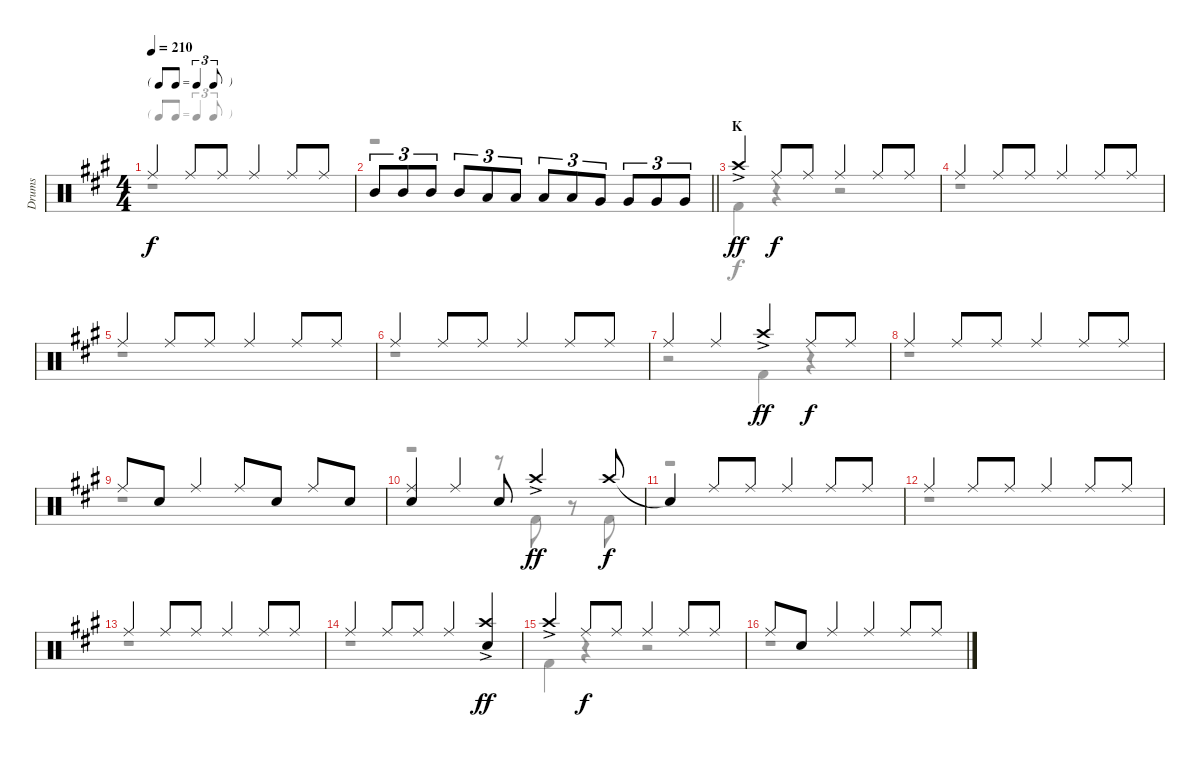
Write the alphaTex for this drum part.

\track ("Drums" "Drums") {instrument percussion}
\staff {score}
\articulation defaults
\voice
\ts (4 4)
\tf triplet8th
\tempo 210
\clef neutral
\ks a "Ride (middle)".4{dy f} "Ride (middle)".8 "Ride (middle)".8 "Ride (middle)".4 "Ride (middle)".8 "Ride (middle)".8
|
\barLineRight lightlight "Mid Tom (hit)".8{tu (3 2)} "Mid Tom (hit)".8{tu (3 2)} "Mid Tom (hit)".8{tu (3 2)} "Mid Tom (hit)".8{tu (3 2)} "Low Tom (hit)".8{tu (3 2)} "Low Tom (hit)".8{tu (3 2)} "Low Tom (hit)".8{tu (3 2)} "Low Tom (hit)".8{tu (3 2)} "Very Low Tom (hit)".8{tu (3 2)} "Very Low Tom (hit)".8{tu (3 2)} "Very Low Tom (hit)".8{tu (3 2)} "Very Low Tom (hit)".8{tu (3 2)}
|
\section ("" "K")
"Crash high (hit)"{ac}.4{dy ff} "Ride (middle)".8{dy f} "Ride (middle)".8 "Ride (middle)".4 "Ride (middle)".8 "Ride (middle)".8 |
"Ride (middle)".4 "Ride (middle)".8 "Ride (middle)".8 "Ride (middle)".4 "Ride (middle)".8 "Ride (middle)".8 |
"Ride (middle)".4 "Ride (middle)".8 "Ride (middle)".8 "Ride (middle)".4 "Ride (middle)".8 "Ride (middle)".8 |
"Ride (middle)".4 "Ride (middle)".8 "Ride (middle)".8 "Ride (middle)".4 "Ride (middle)".8 "Ride (middle)".8 |
"Ride (middle)".4 "Ride (middle)".4 "Crash high (hit)"{ac}.4{dy ff} "Ride (middle)".8{dy f} "Ride (middle)".8 |
"Ride (middle)".4 "Ride (middle)".8 "Ride (middle)".8 "Ride (middle)".4 "Ride (middle)".8 "Ride (middle)".8 |
"Ride (middle)".8 "Snare (hit) 2".8 "Ride (middle)".4 "Ride (middle)".8 "Snare (hit) 2".8 "Ride (middle)".8 "Snare (hit) 2".8 |
("Ride (middle)" "Snare (hit) 2").4 "Ride (middle)".4 "Snare (hit) 2".8 "Crash high (hit)"{ac}.4{dy ff} "Crash high (hit)".8{dy f} |
"Snare (hit)"{t}.4 "Ride (middle)".8 "Ride (middle)".8 "Ride (middle)".4 "Ride (middle)".8 "Ride (middle)".8 |
"Ride (middle)".4 "Ride (middle)".8 "Ride (middle)".8 "Ride (middle)".4 "Ride (middle)".8 "Ride (middle)".8 |
"Ride (middle)".4 "Ride (middle)".8 "Ride (middle)".8 "Ride (middle)".4 "Ride (middle)".8 "Ride (middle)".8 |
"Ride (middle)".4 "Ride (middle)".8 "Ride (middle)".8 "Ride (middle)".4 ("Crash high (hit)"{ac} "Snare (hit) 2").4{dy ff} |
"Crash high (hit)"{ac}.4 "Ride (middle)".8{dy f} "Ride (middle)".8 "Ride (middle)".4 "Ride (middle)".8 "Ride (middle)".8 |
"Ride (middle)".8 "Snare (hit) 2".8 "Ride (middle)".4 "Ride (middle)".4 "Ride (middle)".8 "Ride (middle)".8
\voice
\clef neutral
\ottava regular
\simile none
\ks a
r.1{dy f} |
\barLineRight lightlight
r.1 |
"Kick (hit) 2".4 r.4 r.2 |
r.1 |
r.1 |
r.1 |
r.2 "Kick (hit) 2".4 r.4 |
r.1 |
r.1 |
r.2 r.8 "Kick (hit) 2".8 r.8 "Kick (hit) 2".8 |
r.1 |
r.1 |
r.1 |
r.1 |
"Kick (hit) 2".4 r.4 r.2 |
r.1
